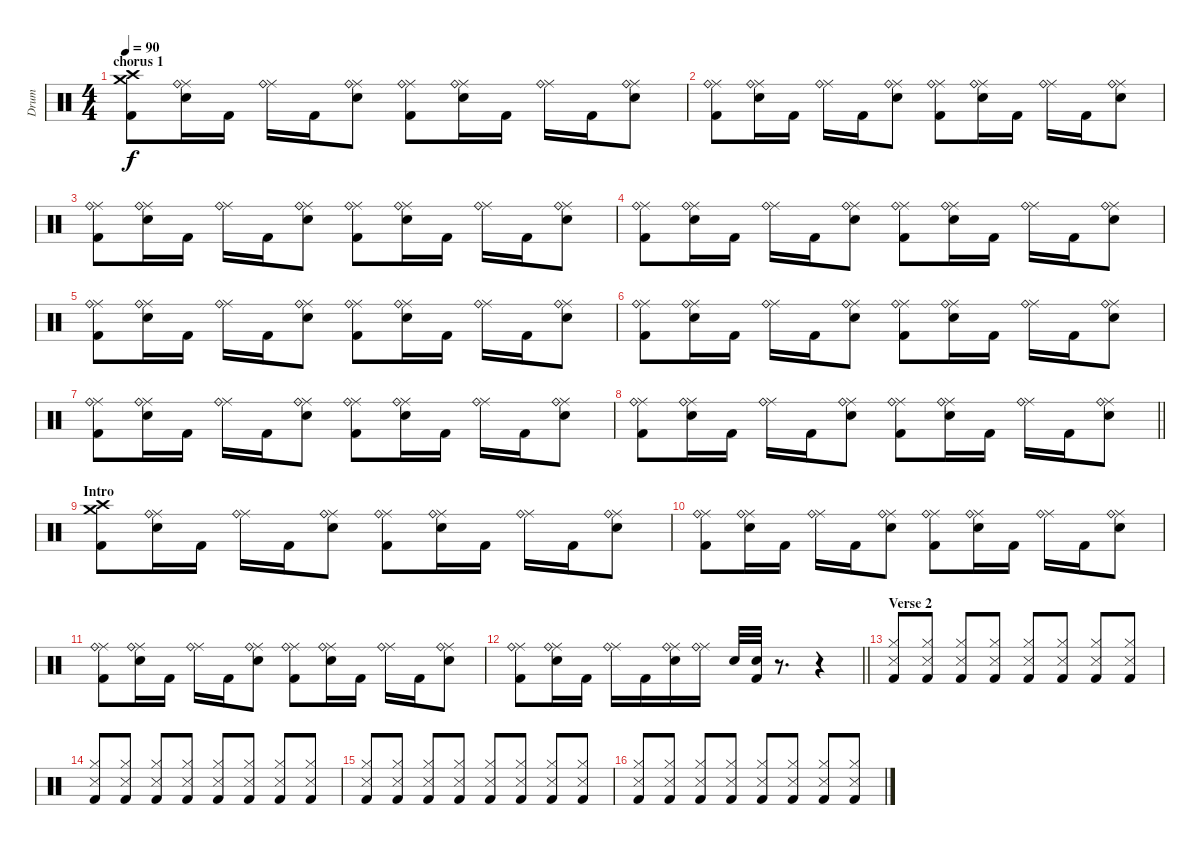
\track ("Drum" "Drum") {instrument percussion}
\staff {score}
\articulation defaults
\ts (4 4)
\section ("" "chorus 1")
\tempo 90
\clef neutral
\ks c
("Crash medium (hit)" "Crash high (hit)" "Kick (hit) 2").8{dy f} ("Ride (middle)" "Ride (bell)" "Snare (hit) 2").16 "Kick (hit) 2".16 ("Ride (middle)" "Ride (bell)").16 "Kick (hit) 2".16 ("Ride (middle)" "Ride (bell)" "Snare (hit) 2").8 ("Ride (middle)" "Ride (bell)" "Kick (hit) 2").8 ("Ride (middle)" "Ride (bell)" "Snare (hit) 2").16 "Kick (hit) 2".16 ("Ride (middle)" "Ride (bell)").16 "Kick (hit) 2".16 ("Ride (middle)" "Ride (bell)" "Snare (hit) 2").8 |
("Ride (middle)" "Ride (bell)" "Kick (hit) 2").8 ("Ride (middle)" "Ride (bell)" "Snare (hit) 2").16 "Kick (hit) 2".16 ("Ride (middle)" "Ride (bell)").16 "Kick (hit) 2".16 ("Ride (middle)" "Ride (bell)" "Snare (hit) 2").8 ("Ride (middle)" "Ride (bell)" "Kick (hit) 2").8 ("Ride (middle)" "Ride (bell)" "Snare (hit) 2").16 "Kick (hit) 2".16 ("Ride (middle)" "Ride (bell)").16 "Kick (hit) 2".16 ("Ride (middle)" "Ride (bell)" "Snare (hit) 2").8 |
("Ride (middle)" "Ride (bell)" "Kick (hit) 2").8 ("Ride (middle)" "Ride (bell)" "Snare (hit) 2").16 "Kick (hit) 2".16 ("Ride (middle)" "Ride (bell)").16 "Kick (hit) 2".16 ("Ride (middle)" "Ride (bell)" "Snare (hit) 2").8 ("Ride (middle)" "Ride (bell)" "Kick (hit) 2").8 ("Ride (middle)" "Ride (bell)" "Snare (hit) 2").16 "Kick (hit) 2".16 ("Ride (middle)" "Ride (bell)").16 "Kick (hit) 2".16 ("Ride (middle)" "Ride (bell)" "Snare (hit) 2").8 |
("Ride (middle)" "Ride (bell)" "Kick (hit) 2").8 ("Ride (middle)" "Ride (bell)" "Snare (hit) 2").16 "Kick (hit) 2".16 ("Ride (middle)" "Ride (bell)").16 "Kick (hit) 2".16 ("Ride (middle)" "Ride (bell)" "Snare (hit) 2").8 ("Ride (middle)" "Ride (bell)" "Kick (hit) 2").8 ("Ride (middle)" "Ride (bell)" "Snare (hit) 2").16 "Kick (hit) 2".16 ("Ride (middle)" "Ride (bell)").16 "Kick (hit) 2".16 ("Ride (middle)" "Ride (bell)" "Snare (hit) 2").8 |
("Ride (middle)" "Ride (bell)" "Kick (hit) 2").8 ("Ride (middle)" "Ride (bell)" "Snare (hit) 2").16 "Kick (hit) 2".16 ("Ride (middle)" "Ride (bell)").16 "Kick (hit) 2".16 ("Ride (middle)" "Ride (bell)" "Snare (hit) 2").8 ("Ride (middle)" "Ride (bell)" "Kick (hit) 2").8 ("Ride (middle)" "Ride (bell)" "Snare (hit) 2").16 "Kick (hit) 2".16 ("Ride (middle)" "Ride (bell)").16 "Kick (hit) 2".16 ("Ride (middle)" "Ride (bell)" "Snare (hit) 2").8 |
("Ride (middle)" "Ride (bell)" "Kick (hit) 2").8 ("Ride (middle)" "Ride (bell)" "Snare (hit) 2").16 "Kick (hit) 2".16 ("Ride (middle)" "Ride (bell)").16 "Kick (hit) 2".16 ("Ride (middle)" "Ride (bell)" "Snare (hit) 2").8 ("Ride (middle)" "Ride (bell)" "Kick (hit) 2").8 ("Ride (middle)" "Ride (bell)" "Snare (hit) 2").16 "Kick (hit) 2".16 ("Ride (middle)" "Ride (bell)").16 "Kick (hit) 2".16 ("Ride (middle)" "Ride (bell)" "Snare (hit) 2").8 |
("Ride (middle)" "Ride (bell)" "Kick (hit) 2").8 ("Ride (middle)" "Ride (bell)" "Snare (hit) 2").16 "Kick (hit) 2".16 ("Ride (middle)" "Ride (bell)").16 "Kick (hit) 2".16 ("Ride (middle)" "Ride (bell)" "Snare (hit) 2").8 ("Ride (middle)" "Ride (bell)" "Kick (hit) 2").8 ("Ride (middle)" "Ride (bell)" "Snare (hit) 2").16 "Kick (hit) 2".16 ("Ride (middle)" "Ride (bell)").16 "Kick (hit) 2".16 ("Ride (middle)" "Ride (bell)" "Snare (hit) 2").8 |
\barLineRight lightlight
("Ride (middle)" "Ride (bell)" "Kick (hit) 2").8 ("Ride (middle)" "Ride (bell)" "Snare (hit) 2").16 "Kick (hit) 2".16 ("Ride (middle)" "Ride (bell)").16 "Kick (hit) 2".16 ("Ride (middle)" "Ride (bell)" "Snare (hit) 2").8 ("Ride (middle)" "Ride (bell)" "Kick (hit) 2").8 ("Ride (middle)" "Ride (bell)" "Snare (hit) 2").16 "Kick (hit) 2".16 ("Ride (middle)" "Ride (bell)").16 "Kick (hit) 2".16 ("Ride (middle)" "Ride (bell)" "Snare (hit) 2").8 |
\section ("" "Intro")
("Crash medium (hit)" "Crash high (hit)" "Kick (hit) 2").8 ("Ride (middle)" "Ride (bell)" "Snare (hit) 2").16 "Kick (hit) 2".16 ("Ride (middle)" "Ride (bell)").16 "Kick (hit) 2".16 ("Ride (middle)" "Ride (bell)" "Snare (hit) 2").8 ("Ride (middle)" "Ride (bell)" "Kick (hit) 2").8 ("Ride (middle)" "Ride (bell)" "Snare (hit) 2").16 "Kick (hit) 2".16 ("Ride (middle)" "Ride (bell)").16 "Kick (hit) 2".16 ("Ride (middle)" "Ride (bell)" "Snare (hit) 2").8 |
("Ride (middle)" "Ride (bell)" "Kick (hit) 2").8 ("Ride (middle)" "Ride (bell)" "Snare (hit) 2").16 "Kick (hit) 2".16 ("Ride (middle)" "Ride (bell)").16 "Kick (hit) 2".16 ("Ride (middle)" "Ride (bell)" "Snare (hit) 2").8 ("Ride (middle)" "Ride (bell)" "Kick (hit) 2").8 ("Ride (middle)" "Ride (bell)" "Snare (hit) 2").16 "Kick (hit) 2".16 ("Ride (middle)" "Ride (bell)").16 "Kick (hit) 2".16 ("Ride (middle)" "Ride (bell)" "Snare (hit) 2").8 |
("Ride (middle)" "Ride (bell)" "Kick (hit) 2").8 ("Ride (middle)" "Ride (bell)" "Snare (hit) 2").16 "Kick (hit) 2".16 ("Ride (middle)" "Ride (bell)").16 "Kick (hit) 2".16 ("Ride (middle)" "Ride (bell)" "Snare (hit) 2").8 ("Ride (middle)" "Ride (bell)" "Kick (hit) 2").8 ("Ride (middle)" "Ride (bell)" "Snare (hit) 2").16 "Kick (hit) 2".16 ("Ride (middle)" "Ride (bell)").16 "Kick (hit) 2".16 ("Ride (middle)" "Ride (bell)" "Snare (hit) 2").8 |
\barLineRight lightlight
("Ride (middle)" "Ride (bell)" "Kick (hit) 2").8 ("Ride (middle)" "Ride (bell)" "Snare (hit) 2").16 "Kick (hit) 2".16 ("Ride (middle)" "Ride (bell)").16 "Kick (hit) 2".16 ("Ride (middle)" "Ride (bell)" "Snare (hit) 2").16 ("Ride (middle)" "Ride (bell)").16 "Snare (hit) 2".32 ("Snare (hit) 2" "Kick (hit) 2").32 r.8{d} r.4 |
\section ("" "Verse 2")
("Hi-Hat (closed)" "Snare (side stick) 3" "Kick (hit) 2").8 ("Hi-Hat (closed)" "Snare (side stick) 3" "Kick (hit) 2").8 ("Hi-Hat (closed)" "Snare (side stick) 3" "Kick (hit) 2").8 ("Hi-Hat (closed)" "Snare (side stick) 3" "Kick (hit) 2").8 ("Hi-Hat (closed)" "Snare (side stick) 3" "Kick (hit) 2").8 ("Hi-Hat (closed)" "Snare (side stick) 3" "Kick (hit) 2").8 ("Hi-Hat (closed)" "Snare (side stick) 3" "Kick (hit) 2").8 ("Hi-Hat (closed)" "Snare (side stick) 3" "Kick (hit) 2").8 |
("Hi-Hat (closed)" "Snare (side stick) 3" "Kick (hit) 2").8 ("Hi-Hat (closed)" "Snare (side stick) 3" "Kick (hit) 2").8 ("Hi-Hat (closed)" "Snare (side stick) 3" "Kick (hit) 2").8 ("Hi-Hat (closed)" "Snare (side stick) 3" "Kick (hit) 2").8 ("Hi-Hat (closed)" "Snare (side stick) 3" "Kick (hit) 2").8 ("Hi-Hat (closed)" "Snare (side stick) 3" "Kick (hit) 2").8 ("Hi-Hat (closed)" "Snare (side stick) 3" "Kick (hit) 2").8 ("Hi-Hat (closed)" "Snare (side stick) 3" "Kick (hit) 2").8 |
("Hi-Hat (closed)" "Snare (side stick) 3" "Kick (hit) 2").8 ("Hi-Hat (closed)" "Snare (side stick) 3" "Kick (hit) 2").8 ("Hi-Hat (closed)" "Snare (side stick) 3" "Kick (hit) 2").8 ("Hi-Hat (closed)" "Snare (side stick) 3" "Kick (hit) 2").8 ("Hi-Hat (closed)" "Snare (side stick) 3" "Kick (hit) 2").8 ("Hi-Hat (closed)" "Snare (side stick) 3" "Kick (hit) 2").8 ("Hi-Hat (closed)" "Snare (side stick) 3" "Kick (hit) 2").8 ("Hi-Hat (closed)" "Snare (side stick) 3" "Kick (hit) 2").8 |
("Hi-Hat (closed)" "Snare (side stick) 3" "Kick (hit) 2").8 ("Hi-Hat (closed)" "Snare (side stick) 3" "Kick (hit) 2").8 ("Hi-Hat (closed)" "Snare (side stick) 3" "Kick (hit) 2").8 ("Hi-Hat (closed)" "Snare (side stick) 3" "Kick (hit) 2").8 ("Hi-Hat (closed)" "Snare (side stick) 3" "Kick (hit) 2").8 ("Hi-Hat (closed)" "Snare (side stick) 3" "Kick (hit) 2").8 ("Hi-Hat (closed)" "Snare (side stick) 3" "Kick (hit) 2").8 ("Hi-Hat (closed)" "Snare (side stick) 3" "Kick (hit) 2").8
